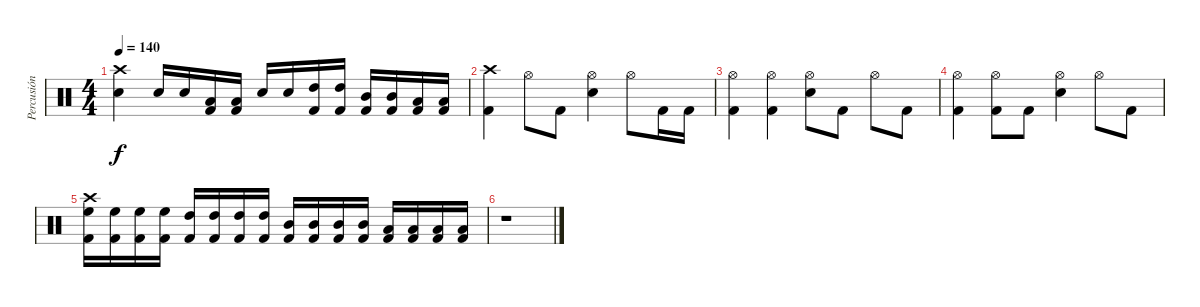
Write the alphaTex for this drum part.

\track ("Percusión" "Percusión") {instrument percussion}
\staff {score}
\articulation defaults
\ts (4 4)
\tempo 140
\clef neutral
\ks c
("Snare (hit) 2" "Crash high (hit)").4{dy f} "Snare (hit) 2".16 "Snare (hit) 2".16 ("Kick (hit) 2" "Low Tom (hit)").16 ("Kick (hit) 2" "Low Tom (hit)").16 "Snare (hit) 2".16 "Snare (hit) 2".16 ("Kick (hit) 2" "High Tom (hit)").16 ("Kick (hit) 2" "High Tom (hit)").16 ("Kick (hit) 2" "Mid Tom (hit)").16 ("Kick (hit) 2" "Mid Tom (hit)").16 ("Kick (hit) 2" "Low Tom (hit)").16 ("Kick (hit) 2" "Low Tom (hit)").16 |
("Kick (hit) 2" "Crash high (hit)").4 "Hi-Hat (open)".8 "Kick (hit) 2".8 ("Snare (hit) 2" "Hi-Hat (open)").4 "Hi-Hat (open)".8 "Kick (hit) 2".16 "Kick (hit) 2".16 |
("Kick (hit) 2" "Hi-Hat (open)").4 ("Kick (hit) 2" "Hi-Hat (open)").4 ("Snare (hit) 2" "Hi-Hat (open)").8 "Kick (hit) 2".8 "Hi-Hat (open)".8 "Kick (hit) 2".8 |
("Kick (hit) 2" "Hi-Hat (open)").4 ("Kick (hit) 2" "Hi-Hat (open)").8 "Kick (hit) 2".8 ("Snare (hit) 2" "Hi-Hat (open)").4 "Hi-Hat (open)".8 "Kick (hit) 2".8 |
("Kick (hit) 2" "Crash high (hit)" "High Floor Tom (hit)").16 ("Kick (hit) 2" "High Floor Tom (hit)").16 ("Kick (hit) 2" "High Floor Tom (hit)").16 ("Kick (hit) 2" "High Floor Tom (hit)").16 ("Kick (hit) 2" "High Tom (hit)").16 ("Kick (hit) 2" "High Tom (hit)").16 ("Kick (hit) 2" "High Tom (hit)").16 ("Kick (hit) 2" "High Tom (hit)").16 ("Kick (hit) 2" "Mid Tom (hit)").16 ("Kick (hit) 2" "Mid Tom (hit)").16 ("Kick (hit) 2" "Mid Tom (hit)").16 ("Kick (hit) 2" "Mid Tom (hit)").16 ("Kick (hit) 2" "Low Tom (hit)").16 ("Kick (hit) 2" "Low Tom (hit)").16 ("Kick (hit) 2" "Low Tom (hit)").16 ("Kick (hit) 2" "Low Tom (hit)").16 |
r.1
